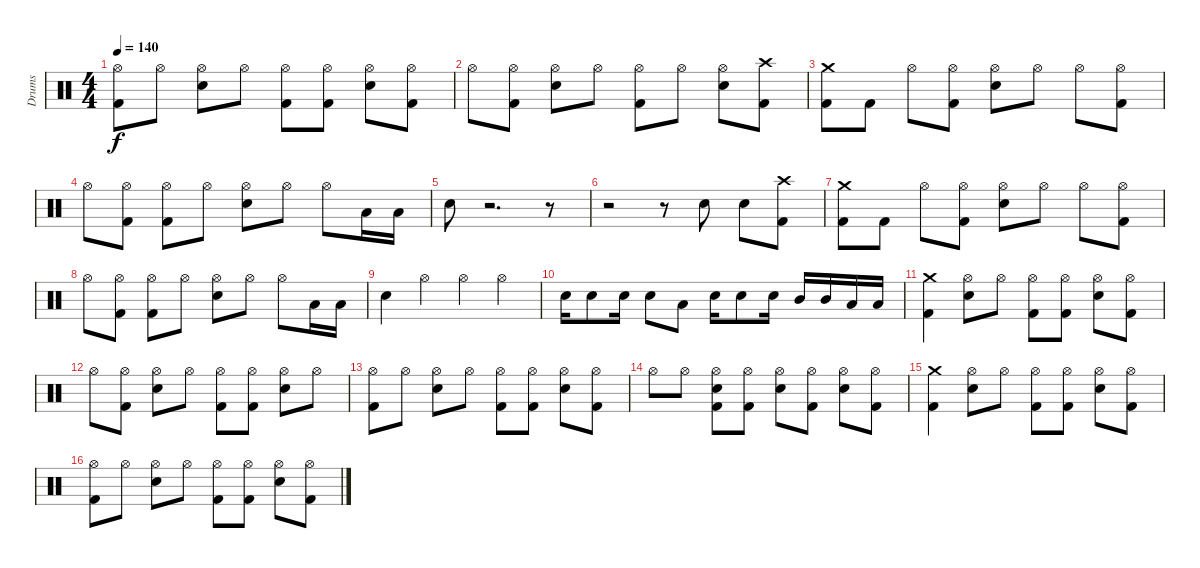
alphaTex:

\track ("Drums" "Drums") {instrument percussion}
\staff {score}
\articulation defaults
\ts (4 4)
\tempo 140
\clef neutral
\ks c
("Hi-Hat (open)" "Kick (hit) 2").8{dy f} "Hi-Hat (open)".8 ("Hi-Hat (open)" "Snare (hit) 2").8 "Hi-Hat (open)".8 ("Hi-Hat (open)" "Kick (hit) 2").8 ("Hi-Hat (open)" "Kick (hit) 2").8 ("Hi-Hat (open)" "Snare (hit) 2").8 ("Hi-Hat (open)" "Kick (hit) 2").8 |
"Hi-Hat (open)".8 ("Hi-Hat (open)" "Kick (hit) 2").8 ("Hi-Hat (open)" "Snare (hit) 2").8 "Hi-Hat (open)".8 ("Kick (hit) 2" "Hi-Hat (open)").8 "Hi-Hat (open)".8 ("Hi-Hat (open)" "Snare (hit) 2").8 ("Crash high (hit)" "Kick (hit) 2").8 |
("Crash medium (hit)" "Kick (hit) 2").8 "Kick (hit) 2".8 "Hi-Hat (open)".8 ("Hi-Hat (open)" "Kick (hit) 2").8 ("Snare (hit) 2" "Hi-Hat (open)").8 "Hi-Hat (open)".8 "Hi-Hat (open)".8 ("Hi-Hat (open)" "Kick (hit) 2").8 |
"Hi-Hat (open)".8 ("Kick (hit) 2" "Hi-Hat (open)").8 ("Hi-Hat (open)" "Kick (hit) 2").8 "Hi-Hat (open)".8 ("Snare (hit) 2" "Hi-Hat (open)").8 "Hi-Hat (open)".8 "Hi-Hat (open)".8 "Low Tom (hit)".16 "Low Tom (hit)".16 |
"Snare (hit) 2".8 r.2{d} r.8 |
r.2 r.8 "Snare (hit) 2".8 "Snare (hit) 2".8 ("Kick (hit) 2" "Crash high (hit)").8 |
("Crash medium (hit)" "Kick (hit) 2").8 "Kick (hit) 2".8 "Hi-Hat (open)".8 ("Hi-Hat (open)" "Kick (hit) 2").8 ("Hi-Hat (open)" "Snare (hit) 2").8 "Hi-Hat (open)".8 "Hi-Hat (open)".8 ("Hi-Hat (open)" "Kick (hit) 2").8 |
"Hi-Hat (open)".8 ("Hi-Hat (open)" "Kick (hit) 2").8 ("Kick (hit) 2" "Hi-Hat (open)").8 "Hi-Hat (open)".8 ("Hi-Hat (open)" "Snare (hit) 2").8 "Hi-Hat (open)".8 "Hi-Hat (open)".8 "Low Tom (hit)".16 "Low Tom (hit)".16 |
"Snare (hit) 2".4 "Hi-Hat (open)".4 "Hi-Hat (open)".4 "Hi-Hat (open)".4 |
"Snare (hit) 2".16 "Snare (hit) 2".8 "Snare (hit) 2".16 "Snare (hit) 2".8 "Low Tom (hit)".8 "Snare (hit) 2".16 "Snare (hit) 2".8 "Snare (hit) 2".16 "Mid Tom (hit)".16 "Mid Tom (hit)".16 "Low Tom (hit)".16 "Low Tom (hit)".16 |
("Crash medium (hit)" "Kick (hit) 2").4 ("Hi-Hat (open)" "Snare (hit) 2").8 "Hi-Hat (open)".8 ("Hi-Hat (open)" "Kick (hit) 2").8 ("Hi-Hat (open)" "Kick (hit) 2").8 ("Hi-Hat (open)" "Snare (hit) 2").8 ("Hi-Hat (open)" "Kick (hit) 2").8 |
"Hi-Hat (open)".8 ("Hi-Hat (open)" "Kick (hit) 2").8 ("Hi-Hat (open)" "Snare (hit) 2").8 "Hi-Hat (open)".8 ("Hi-Hat (open)" "Kick (hit) 2").8 ("Hi-Hat (open)" "Kick (hit) 2").8 ("Hi-Hat (open)" "Snare (hit) 2").8 "Hi-Hat (open)".8 |
("Hi-Hat (open)" "Kick (hit) 2").8 "Hi-Hat (open)".8 ("Hi-Hat (open)" "Snare (hit) 2").8 "Hi-Hat (open)".8 ("Hi-Hat (open)" "Kick (hit) 2").8 ("Hi-Hat (open)" "Kick (hit) 2").8 ("Hi-Hat (open)" "Snare (hit) 2").8 ("Kick (hit) 2" "Hi-Hat (open)").8 |
"Hi-Hat (open)".8 "Hi-Hat (open)".8 ("Kick (hit) 2" "Hi-Hat (open)" "Snare (hit) 2").8 ("Kick (hit) 2" "Hi-Hat (open)").8 ("Snare (hit) 2" "Hi-Hat (open)").8 ("Hi-Hat (open)" "Kick (hit) 2").8 ("Snare (hit) 2" "Hi-Hat (open)").8 ("Kick (hit) 2" "Hi-Hat (open)").8 |
("Crash medium (hit)" "Kick (hit) 2").4 ("Hi-Hat (open)" "Snare (hit) 2").8 "Hi-Hat (open)".8 ("Hi-Hat (open)" "Kick (hit) 2").8 ("Hi-Hat (open)" "Kick (hit) 2").8 ("Hi-Hat (open)" "Snare (hit) 2").8 ("Hi-Hat (open)" "Kick (hit) 2").8 |
("Kick (hit) 2" "Hi-Hat (open)").8 "Hi-Hat (open)".8 ("Hi-Hat (open)" "Snare (hit) 2").8 "Hi-Hat (open)".8 ("Kick (hit) 2" "Hi-Hat (open)").8 ("Kick (hit) 2" "Hi-Hat (open)").8 ("Snare (hit) 2" "Hi-Hat (open)").8 ("Hi-Hat (open)" "Kick (hit) 2").8
